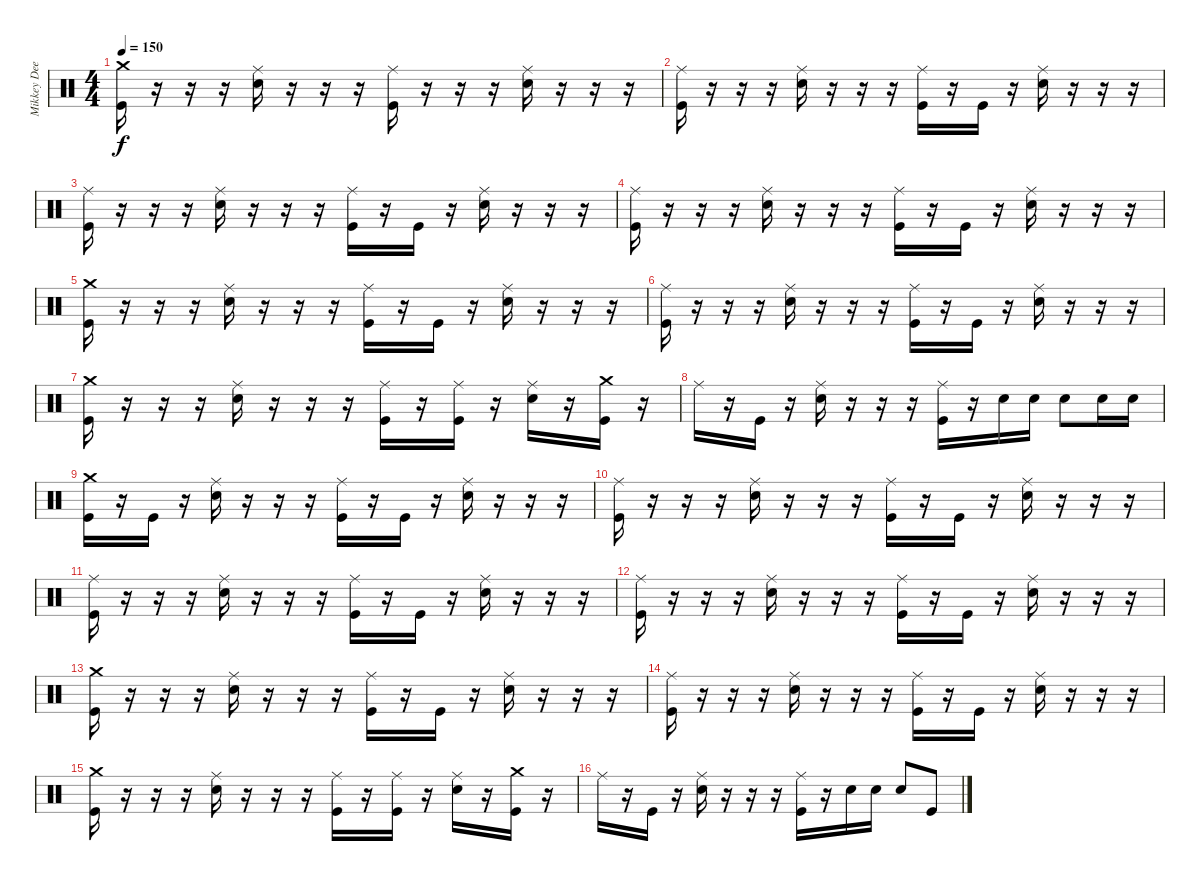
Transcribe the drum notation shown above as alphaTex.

\track ("Mikkey Dee" "Mikkey Dee") {instrument percussion}
\staff {score}
\articulation defaults
\ts (4 4)
\tempo 150
\clef neutral
\ks c
("Crash medium (hit)" "Kick (hit)").16{dy f} r.16 r.16 r.16 ("Ride (middle)" "Snare (hit) 2").16 r.16 r.16 r.16 ("Ride (middle)" "Kick (hit)").16 r.16 r.16 r.16 ("Ride (middle)" "Snare (hit) 2").16 r.16 r.16 r.16 |
("Ride (middle)" "Kick (hit)").16 r.16 r.16 r.16 ("Ride (middle)" "Snare (hit) 2").16 r.16 r.16 r.16 ("Ride (middle)" "Kick (hit)").16 r.16 "Kick (hit)".16 r.16 ("Ride (middle)" "Snare (hit) 2").16 r.16 r.16 r.16 |
("Ride (middle)" "Kick (hit)").16 r.16 r.16 r.16 ("Ride (middle)" "Snare (hit) 2").16 r.16 r.16 r.16 ("Ride (middle)" "Kick (hit)").16 r.16 "Kick (hit)".16 r.16 ("Ride (middle)" "Snare (hit) 2").16 r.16 r.16 r.16 |
("Ride (middle)" "Kick (hit)").16 r.16 r.16 r.16 ("Ride (middle)" "Snare (hit) 2").16 r.16 r.16 r.16 ("Ride (middle)" "Kick (hit)").16 r.16 "Kick (hit)".16 r.16 ("Ride (middle)" "Snare (hit) 2").16 r.16 r.16 r.16 |
("Crash medium (hit)" "Kick (hit)").16 r.16 r.16 r.16 ("Ride (middle)" "Snare (hit) 2").16 r.16 r.16 r.16 ("Ride (middle)" "Kick (hit)").16 r.16 "Kick (hit)".16 r.16 ("Ride (middle)" "Snare (hit) 2").16 r.16 r.16 r.16 |
("Ride (middle)" "Kick (hit)").16 r.16 r.16 r.16 ("Ride (middle)" "Snare (hit) 2").16 r.16 r.16 r.16 ("Ride (middle)" "Kick (hit)").16 r.16 "Kick (hit)".16 r.16 ("Ride (middle)" "Snare (hit) 2").16 r.16 r.16 r.16 |
("Crash medium (hit)" "Kick (hit)").16 r.16 r.16 r.16 ("Ride (middle)" "Snare (hit) 2").16 r.16 r.16 r.16 ("Ride (middle)" "Kick (hit)").16 r.16 ("Ride (middle)" "Kick (hit)").16 r.16 ("Ride (middle)" "Snare (hit) 2").16 r.16 ("Crash medium (hit)" "Kick (hit)").16 r.16 |
"Ride (middle)".16 r.16 "Kick (hit)".16 r.16 ("Ride (middle)" "Snare (hit) 2").16 r.16 r.16 r.16 ("Ride (middle)" "Kick (hit)").16 r.16 "Snare (hit) 2".16 "Snare (hit) 2".16 "Snare (hit) 2".8 "Snare (hit) 2".16 "Snare (hit) 2".16 |
("Crash medium (hit)" "Kick (hit)").16 r.16 "Kick (hit)".16 r.16 ("Ride (middle)" "Snare (hit) 2").16 r.16 r.16 r.16 ("Ride (middle)" "Kick (hit)").16 r.16 "Kick (hit)".16 r.16 ("Ride (middle)" "Snare (hit) 2").16 r.16 r.16 r.16 |
("Ride (middle)" "Kick (hit)").16 r.16 r.16 r.16 ("Ride (middle)" "Snare (hit) 2").16 r.16 r.16 r.16 ("Ride (middle)" "Kick (hit)").16 r.16 "Kick (hit)".16 r.16 ("Ride (middle)" "Snare (hit) 2").16 r.16 r.16 r.16 |
("Ride (middle)" "Kick (hit)").16 r.16 r.16 r.16 ("Ride (middle)" "Snare (hit) 2").16 r.16 r.16 r.16 ("Ride (middle)" "Kick (hit)").16 r.16 "Kick (hit)".16 r.16 ("Ride (middle)" "Snare (hit) 2").16 r.16 r.16 r.16 |
("Ride (middle)" "Kick (hit)").16 r.16 r.16 r.16 ("Ride (middle)" "Snare (hit) 2").16 r.16 r.16 r.16 ("Ride (middle)" "Kick (hit)").16 r.16 "Kick (hit)".16 r.16 ("Ride (middle)" "Snare (hit) 2").16 r.16 r.16 r.16 |
("Crash medium (hit)" "Kick (hit)").16 r.16 r.16 r.16 ("Ride (middle)" "Snare (hit) 2").16 r.16 r.16 r.16 ("Ride (middle)" "Kick (hit)").16 r.16 "Kick (hit)".16 r.16 ("Ride (middle)" "Snare (hit) 2").16 r.16 r.16 r.16 |
("Ride (middle)" "Kick (hit)").16 r.16 r.16 r.16 ("Ride (middle)" "Snare (hit) 2").16 r.16 r.16 r.16 ("Ride (middle)" "Kick (hit)").16 r.16 "Kick (hit)".16 r.16 ("Ride (middle)" "Snare (hit) 2").16 r.16 r.16 r.16 |
("Crash medium (hit)" "Kick (hit)").16 r.16 r.16 r.16 ("Ride (middle)" "Snare (hit) 2").16 r.16 r.16 r.16 ("Ride (middle)" "Kick (hit)").16 r.16 ("Ride (middle)" "Kick (hit)").16 r.16 ("Ride (middle)" "Snare (hit) 2").16 r.16 ("Crash medium (hit)" "Kick (hit)").16 r.16 |
"Ride (middle)".16 r.16 "Kick (hit)".16 r.16 ("Ride (middle)" "Snare (hit) 2").16 r.16 r.16 r.16 ("Ride (middle)" "Kick (hit)").16 r.16 "Snare (hit) 2".16 "Snare (hit) 2".16 "Snare (hit) 2".8 "Kick (hit)".8
